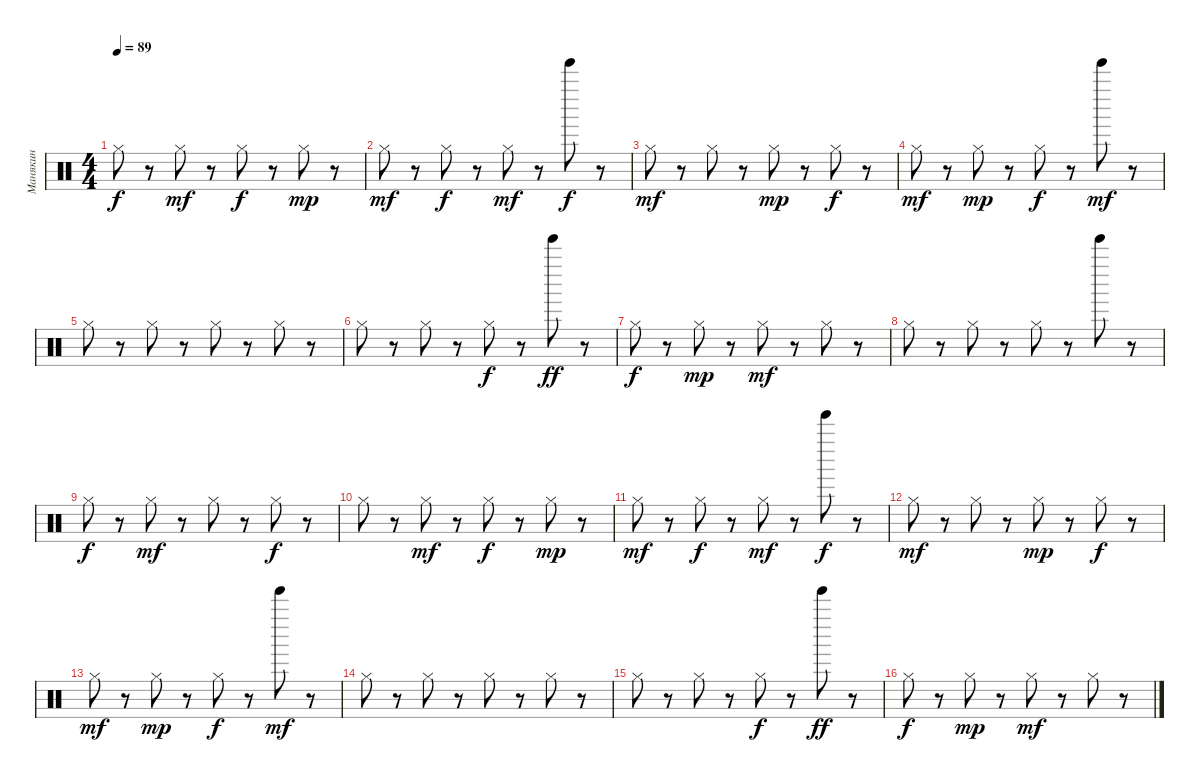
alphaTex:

\track ("Манякин" "Манякин") {instrument percussion}
\staff {score}
\articulation defaults
\ts (4 4)
\tempo 89
\clef neutral
\ks c "Hi-Hat (closed)".8{dy f}
r.8 "Hi-Hat (closed)".8{dy mf} r.8 "Hi-Hat (closed)".8{dy f} r.8 "Hi-Hat (closed)".8{dy mp} r.8 |
"Hi-Hat (closed)".8{dy mf} r.8 "Hi-Hat (closed)".8{dy f} r.8 "Hi-Hat (closed)".8{dy mf} r.8 "Tinkle Bell (hit)".8{dy f} r.8 |
"Hi-Hat (closed)".8{dy mf} r.8 "Hi-Hat (closed)".8 r.8 "Hi-Hat (closed)".8{dy mp} r.8 "Hi-Hat (closed)".8{dy f} r.8 |
"Hi-Hat (closed)".8{dy mf} r.8 "Hi-Hat (closed)".8{dy mp} r.8 "Hi-Hat (closed)".8{dy f} r.8 "Tinkle Bell (hit)".8{dy mf} r.8 |
"Hi-Hat (closed)".8 r.8 "Hi-Hat (closed)".8 r.8 "Hi-Hat (closed)".8 r.8 "Hi-Hat (closed)".8 r.8 |
"Hi-Hat (closed)".8 r.8 "Hi-Hat (closed)".8 r.8 "Hi-Hat (closed)".8{dy f} r.8 "Tinkle Bell (hit)".8{dy ff} r.8 |
"Hi-Hat (closed)".8{dy f} r.8 "Hi-Hat (closed)".8{dy mp} r.8 "Hi-Hat (closed)".8{dy mf} r.8 "Hi-Hat (closed)".8 r.8 |
"Hi-Hat (closed)".8 r.8 "Hi-Hat (closed)".8 r.8 "Hi-Hat (closed)".8 r.8 "Tinkle Bell (hit)".8 r.8 |
"Hi-Hat (closed)".8{dy f} r.8 "Hi-Hat (closed)".8{dy mf} r.8 "Hi-Hat (closed)".8 r.8 "Hi-Hat (closed)".8{dy f} r.8 |
"Hi-Hat (closed)".8 r.8 "Hi-Hat (closed)".8{dy mf} r.8 "Hi-Hat (closed)".8{dy f} r.8 "Hi-Hat (closed)".8{dy mp} r.8 |
"Hi-Hat (closed)".8{dy mf} r.8 "Hi-Hat (closed)".8{dy f} r.8 "Hi-Hat (closed)".8{dy mf} r.8 "Tinkle Bell (hit)".8{dy f} r.8 |
"Hi-Hat (closed)".8{dy mf} r.8 "Hi-Hat (closed)".8 r.8 "Hi-Hat (closed)".8{dy mp} r.8 "Hi-Hat (closed)".8{dy f} r.8 |
"Hi-Hat (closed)".8{dy mf} r.8 "Hi-Hat (closed)".8{dy mp} r.8 "Hi-Hat (closed)".8{dy f} r.8 "Tinkle Bell (hit)".8{dy mf} r.8 |
"Hi-Hat (closed)".8 r.8 "Hi-Hat (closed)".8 r.8 "Hi-Hat (closed)".8 r.8 "Hi-Hat (closed)".8 r.8 |
"Hi-Hat (closed)".8 r.8 "Hi-Hat (closed)".8 r.8 "Hi-Hat (closed)".8{dy f} r.8 "Tinkle Bell (hit)".8{dy ff} r.8 |
"Hi-Hat (closed)".8{dy f} r.8 "Hi-Hat (closed)".8{dy mp} r.8 "Hi-Hat (closed)".8{dy mf} r.8 "Hi-Hat (closed)".8 r.8
